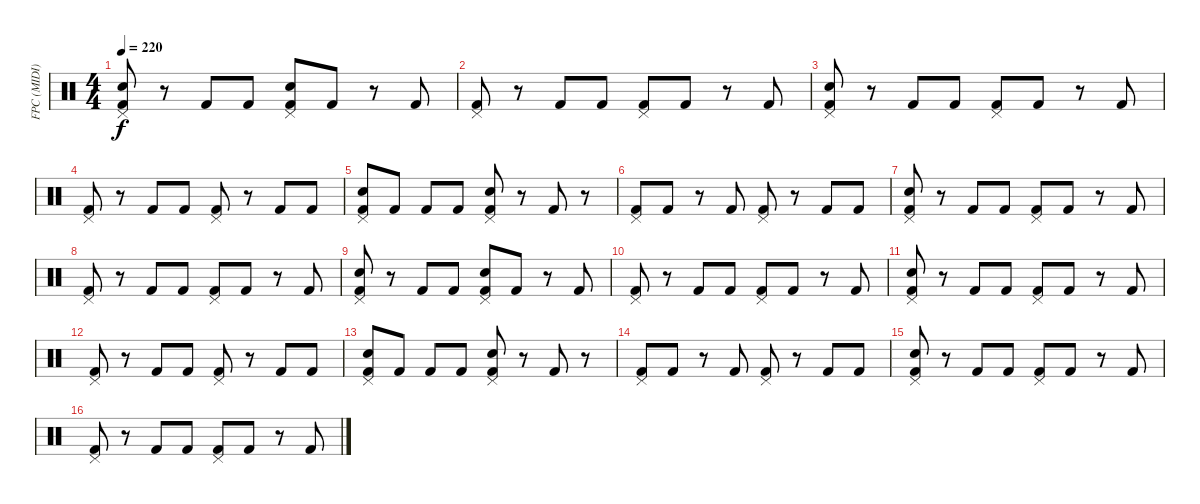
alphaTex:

\track ("FPC (MIDI)" "FPC (MIDI)") {instrument percussion}
\staff {score}
\articulation defaults
\ts (4 4)
\tempo 220
\clef neutral
\ks c
("Pedal Hi-Hat (hit)" "Snare (hit) 2" "Kick (hit) 2").8{dy f} r.8 "Kick (hit) 2".8 "Kick (hit) 2".8 ("Kick (hit) 2" "Pedal Hi-Hat (hit)" "Snare (hit) 2").8 "Kick (hit) 2".8 r.8 "Kick (hit) 2".8 |
("Pedal Hi-Hat (hit)" "Kick (hit) 2").8 r.8 "Kick (hit) 2".8 "Kick (hit) 2".8 ("Pedal Hi-Hat (hit)" "Kick (hit) 2").8 "Kick (hit) 2".8 r.8 "Kick (hit) 2".8 |
("Pedal Hi-Hat (hit)" "Snare (hit) 2" "Kick (hit) 2").8 r.8 "Kick (hit) 2".8 "Kick (hit) 2".8 ("Kick (hit) 2" "Pedal Hi-Hat (hit)").8 "Kick (hit) 2".8 r.8 "Kick (hit) 2".8 |
("Kick (hit) 2" "Pedal Hi-Hat (hit)").8 r.8 "Kick (hit) 2".8 "Kick (hit) 2".8 ("Pedal Hi-Hat (hit)" "Kick (hit) 2").8 r.8 "Kick (hit) 2".8 "Kick (hit) 2".8 |
("Pedal Hi-Hat (hit)" "Snare (hit) 2" "Kick (hit) 2").8 "Kick (hit) 2".8 "Kick (hit) 2".8 "Kick (hit) 2".8 ("Kick (hit) 2" "Pedal Hi-Hat (hit)" "Snare (hit) 2").8 r.8 "Kick (hit) 2".8 r.8 |
("Kick (hit) 2" "Pedal Hi-Hat (hit)").8 "Kick (hit) 2".8 r.8 "Kick (hit) 2".8 ("Pedal Hi-Hat (hit)" "Kick (hit) 2").8 r.8 "Kick (hit) 2".8 "Kick (hit) 2".8 |
("Pedal Hi-Hat (hit)" "Snare (hit) 2" "Kick (hit) 2").8 r.8 "Kick (hit) 2".8 "Kick (hit) 2".8 ("Pedal Hi-Hat (hit)" "Kick (hit) 2").8 "Kick (hit) 2".8 r.8 "Kick (hit) 2".8 |
("Kick (hit) 2" "Pedal Hi-Hat (hit)").8 r.8 "Kick (hit) 2".8 "Kick (hit) 2".8 ("Pedal Hi-Hat (hit)" "Kick (hit) 2").8 "Kick (hit) 2".8 r.8 "Kick (hit) 2".8 |
("Pedal Hi-Hat (hit)" "Snare (hit) 2" "Kick (hit) 2").8 r.8 "Kick (hit) 2".8 "Kick (hit) 2".8 ("Kick (hit) 2" "Pedal Hi-Hat (hit)" "Snare (hit) 2").8 "Kick (hit) 2".8 r.8 "Kick (hit) 2".8 |
("Pedal Hi-Hat (hit)" "Kick (hit) 2").8 r.8 "Kick (hit) 2".8 "Kick (hit) 2".8 ("Pedal Hi-Hat (hit)" "Kick (hit) 2").8 "Kick (hit) 2".8 r.8 "Kick (hit) 2".8 |
("Pedal Hi-Hat (hit)" "Snare (hit) 2" "Kick (hit) 2").8 r.8 "Kick (hit) 2".8 "Kick (hit) 2".8 ("Kick (hit) 2" "Pedal Hi-Hat (hit)").8 "Kick (hit) 2".8 r.8 "Kick (hit) 2".8 |
("Kick (hit) 2" "Pedal Hi-Hat (hit)").8 r.8 "Kick (hit) 2".8 "Kick (hit) 2".8 ("Pedal Hi-Hat (hit)" "Kick (hit) 2").8 r.8 "Kick (hit) 2".8 "Kick (hit) 2".8 |
("Pedal Hi-Hat (hit)" "Snare (hit) 2" "Kick (hit) 2").8 "Kick (hit) 2".8 "Kick (hit) 2".8 "Kick (hit) 2".8 ("Kick (hit) 2" "Pedal Hi-Hat (hit)" "Snare (hit) 2").8 r.8 "Kick (hit) 2".8 r.8 |
("Kick (hit) 2" "Pedal Hi-Hat (hit)").8 "Kick (hit) 2".8 r.8 "Kick (hit) 2".8 ("Pedal Hi-Hat (hit)" "Kick (hit) 2").8 r.8 "Kick (hit) 2".8 "Kick (hit) 2".8 |
("Pedal Hi-Hat (hit)" "Snare (hit) 2" "Kick (hit) 2").8 r.8 "Kick (hit) 2".8 "Kick (hit) 2".8 ("Pedal Hi-Hat (hit)" "Kick (hit) 2").8 "Kick (hit) 2".8 r.8 "Kick (hit) 2".8 |
("Kick (hit) 2" "Pedal Hi-Hat (hit)").8 r.8 "Kick (hit) 2".8 "Kick (hit) 2".8 ("Pedal Hi-Hat (hit)" "Kick (hit) 2").8 "Kick (hit) 2".8 r.8 "Kick (hit) 2".8
